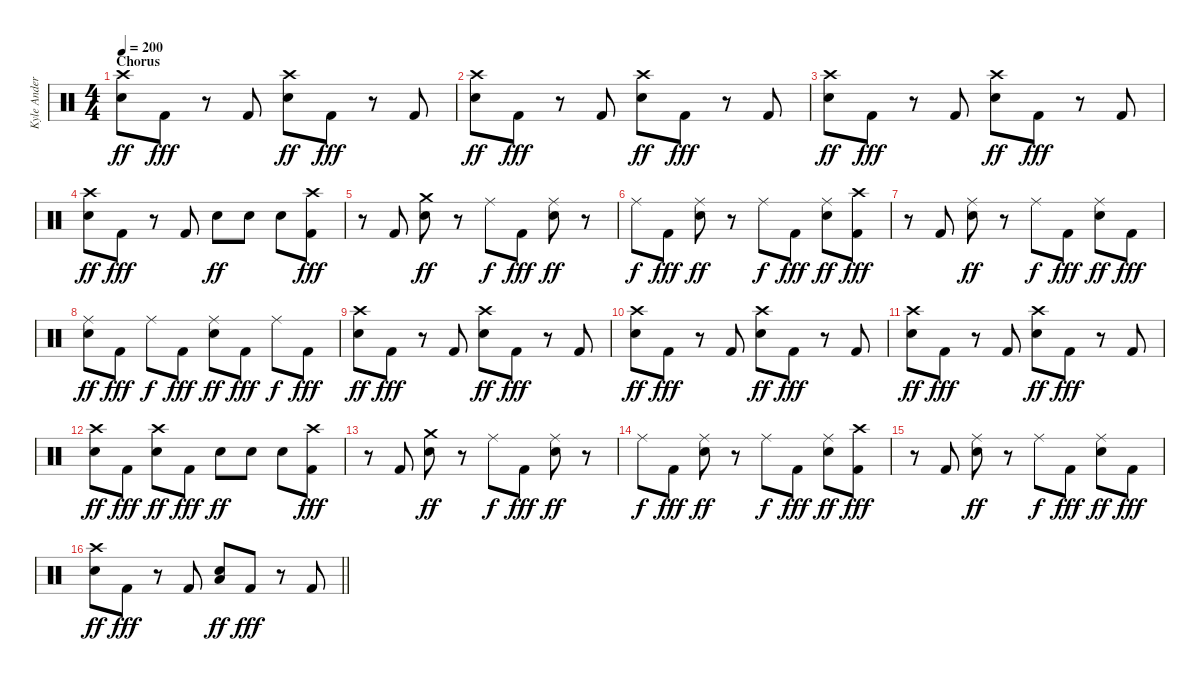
\track ("Kyle Anderson" "Kyle Ander") {instrument percussion}
\staff {score}
\articulation defaults
\ts (4 4)
\section ("" "Chorus")
\tempo 200
\clef neutral
\ks c
("Crash high (hit)" "Electric Snare (hit)").8{dy ff} "Kick (hit) 2".8{dy fff} r.8 "Kick (hit) 2".8 ("Crash high (hit)" "Electric Snare (hit)").8{dy ff} "Kick (hit) 2".8{dy fff} r.8 "Kick (hit) 2".8 |
("Crash high (hit)" "Electric Snare (hit)").8{dy ff} "Kick (hit) 2".8{dy fff} r.8 "Kick (hit) 2".8 ("Crash high (hit)" "Electric Snare (hit)").8{dy ff} "Kick (hit) 2".8{dy fff} r.8 "Kick (hit) 2".8 |
("Crash high (hit)" "Electric Snare (hit)").8{dy ff} "Kick (hit) 2".8{dy fff} r.8 "Kick (hit) 2".8 ("Crash high (hit)" "Electric Snare (hit)").8{dy ff} "Kick (hit) 2".8{dy fff} r.8 "Kick (hit) 2".8 |
("Crash high (hit)" "Electric Snare (hit)").8{dy ff} "Kick (hit) 2".8{dy fff} r.8 "Kick (hit) 2".8 "Electric Snare (hit)".8{dy ff} "Electric Snare (hit)".8 "Electric Snare (hit)".8 ("Crash high (hit)" "Kick (hit) 2").8{dy fff} |
r.8 "Kick (hit) 2".8 ("Crash medium (hit)" "Electric Snare (hit)").8{dy ff} r.8 "Ride (middle)".8{dy f} "Kick (hit) 2".8{dy fff} ("Ride (middle)" "Electric Snare (hit)").8{dy ff} r.8 |
"Ride (middle)".8{dy f} "Kick (hit) 2".8{dy fff} ("Ride (middle)" "Electric Snare (hit)").8{dy ff} r.8 "Ride (middle)".8{dy f} "Kick (hit) 2".8{dy fff} ("Ride (middle)" "Electric Snare (hit)").8{dy ff} ("Crash high (hit)" "Kick (hit) 2").8{dy fff} |
r.8 "Kick (hit) 2".8 ("Ride (middle)" "Electric Snare (hit)").8{dy ff} r.8 "Ride (middle)".8{dy f} "Kick (hit) 2".8{dy fff} ("Ride (middle)" "Electric Snare (hit)").8{dy ff} "Kick (hit) 2".8{dy fff} |
("Ride (middle)" "Electric Snare (hit)").8{dy ff} "Kick (hit) 2".8{dy fff} "Ride (middle)".8{dy f} "Kick (hit) 2".8{dy fff} ("Ride (middle)" "Electric Snare (hit)").8{dy ff} "Kick (hit) 2".8{dy fff} "Ride (middle)".8{dy f} "Kick (hit) 2".8{dy fff} |
("Crash high (hit)" "Electric Snare (hit)").8{dy ff} "Kick (hit) 2".8{dy fff} r.8 "Kick (hit) 2".8 ("Crash high (hit)" "Electric Snare (hit)").8{dy ff} "Kick (hit) 2".8{dy fff} r.8 "Kick (hit) 2".8 |
("Crash high (hit)" "Electric Snare (hit)").8{dy ff} "Kick (hit) 2".8{dy fff} r.8 "Kick (hit) 2".8 ("Crash high (hit)" "Electric Snare (hit)").8{dy ff} "Kick (hit) 2".8{dy fff} r.8 "Kick (hit) 2".8 |
("Crash high (hit)" "Electric Snare (hit)").8{dy ff} "Kick (hit) 2".8{dy fff} r.8 "Kick (hit) 2".8 ("Crash high (hit)" "Electric Snare (hit)").8{dy ff} "Kick (hit) 2".8{dy fff} r.8 "Kick (hit) 2".8 |
("Crash high (hit)" "Electric Snare (hit)").8{dy ff} "Kick (hit) 2".8{dy fff} ("Crash high (hit)" "Electric Snare (hit)").8{dy ff} "Kick (hit) 2".8{dy fff} "Electric Snare (hit)".8{dy ff} "Electric Snare (hit)".8 "Electric Snare (hit)".8 ("Crash high (hit)" "Kick (hit) 2").8{dy fff} |
r.8 "Kick (hit) 2".8 ("Crash medium (hit)" "Electric Snare (hit)").8{dy ff} r.8 "Ride (middle)".8{dy f} "Kick (hit) 2".8{dy fff} ("Ride (middle)" "Electric Snare (hit)").8{dy ff} r.8 |
"Ride (middle)".8{dy f} "Kick (hit) 2".8{dy fff} ("Ride (middle)" "Electric Snare (hit)").8{dy ff} r.8 "Ride (middle)".8{dy f} "Kick (hit) 2".8{dy fff} ("Ride (middle)" "Electric Snare (hit)").8{dy ff} ("Crash high (hit)" "Kick (hit) 2").8{dy fff} |
r.8 "Kick (hit) 2".8 ("Ride (middle)" "Electric Snare (hit)").8{dy ff} r.8 "Ride (middle)".8{dy f} "Kick (hit) 2".8{dy fff} ("Ride (middle)" "Electric Snare (hit)").8{dy ff} "Kick (hit) 2".8{dy fff} |
\barLineRight lightlight
("Crash high (hit)" "Electric Snare (hit)").8{dy ff} "Kick (hit) 2".8{dy fff} r.8 "Kick (hit) 2".8 ("Electric Snare (hit)" "Low Tom (hit)").8{dy ff} "Kick (hit) 2".8{dy fff} r.8 "Kick (hit) 2".8
